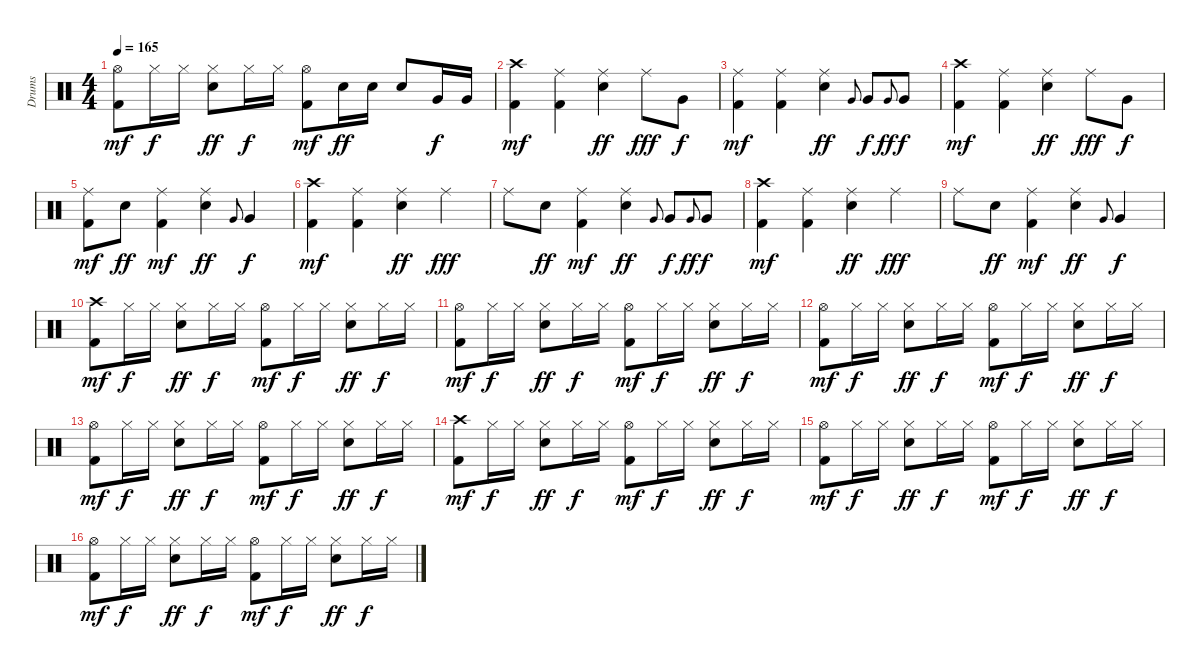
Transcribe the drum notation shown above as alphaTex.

\track ("Drums" "Drums") {instrument percussion}
\staff {score}
\articulation defaults
\ts (4 4)
\tempo 165
\clef neutral
\ks c
("Hi-Hat (open)" "Kick (hit) 2").8{dy mf} "Hi-Hat (closed)".16{dy f} "Hi-Hat (closed)".16 ("Hi-Hat (closed)" "Electric Snare (hit)").8{dy ff} "Hi-Hat (closed)".16{dy f} "Hi-Hat (closed)".16 ("Hi-Hat (open)" "Kick (hit) 2").8{dy mf} "Electric Snare (hit)".16{dy ff} "Electric Snare (hit)".16 "Electric Snare (hit)".8 "Very Low Tom (hit)".16{dy f} "Very Low Tom (hit)".16 |
("Crash high (hit)" "Kick (hit) 2").4{dy mf} ("Ride (middle)" "Kick (hit) 2").4 ("Ride (middle)" "Electric Snare (hit)").4{dy ff} "Ride (middle)".8{dy fff} "Very Low Tom (hit)".8{dy f} |
("Ride (middle)" "Kick (hit) 2").4{dy mf} ("Ride (middle)" "Kick (hit) 2").4 ("Ride (middle)" "Electric Snare (hit)").4{dy ff} "Very Low Tom (hit)".8{gr onbeat} "Very Low Tom (hit)".8{dy f} "Very Low Tom (hit)".8{gr onbeat dy ff} "Very Low Tom (hit)".8{dy f} |
("Crash high (hit)" "Kick (hit) 2").4{dy mf} ("Ride (middle)" "Kick (hit) 2").4 ("Ride (middle)" "Electric Snare (hit)").4{dy ff} "Ride (middle)".8{dy fff} "Very Low Tom (hit)".8{dy f} |
("Ride (middle)" "Kick (hit) 2").8{dy mf} "Electric Snare (hit)".8{dy ff} ("Ride (middle)" "Kick (hit) 2").4{dy mf} ("Ride (middle)" "Electric Snare (hit)").4{dy ff} "Very Low Tom (hit)".8{gr onbeat} "Very Low Tom (hit)".4{dy f} |
("Crash high (hit)" "Kick (hit) 2").4{dy mf} ("Ride (middle)" "Kick (hit) 2").4 ("Ride (middle)" "Electric Snare (hit)").4{dy ff} "Ride (middle)".4{dy fff} |
"Ride (middle)".8 "Electric Snare (hit)".8{dy ff} ("Ride (middle)" "Kick (hit) 2").4{dy mf} ("Ride (middle)" "Electric Snare (hit)").4{dy ff} "Very Low Tom (hit)".8{gr onbeat} "Very Low Tom (hit)".8{dy f} "Very Low Tom (hit)".8{gr onbeat dy ff} "Very Low Tom (hit)".8{dy f} |
("Crash high (hit)" "Kick (hit) 2").4{dy mf} ("Ride (middle)" "Kick (hit) 2").4 ("Ride (middle)" "Electric Snare (hit)").4{dy ff} "Ride (middle)".4{dy fff} |
"Ride (middle)".8 "Electric Snare (hit)".8{dy ff} ("Ride (middle)" "Kick (hit) 2").4{dy mf} ("Ride (middle)" "Electric Snare (hit)").4{dy ff} "Very Low Tom (hit)".8{gr onbeat} "Very Low Tom (hit)".4{dy f} |
("Crash high (hit)" "Kick (hit) 2").8{dy mf} "Hi-Hat (closed)".16{dy f} "Hi-Hat (closed)".16 ("Hi-Hat (closed)" "Electric Snare (hit)").8{dy ff} "Hi-Hat (closed)".16{dy f} "Hi-Hat (closed)".16 ("Hi-Hat (open)" "Kick (hit) 2").8{dy mf} "Hi-Hat (closed)".16{dy f} "Hi-Hat (closed)".16 ("Hi-Hat (closed)" "Electric Snare (hit)").8{dy ff} "Hi-Hat (closed)".16{dy f} "Hi-Hat (closed)".16 |
("Hi-Hat (open)" "Kick (hit) 2").8{dy mf} "Hi-Hat (closed)".16{dy f} "Hi-Hat (closed)".16 ("Hi-Hat (closed)" "Electric Snare (hit)").8{dy ff} "Hi-Hat (closed)".16{dy f} "Hi-Hat (closed)".16 ("Hi-Hat (open)" "Kick (hit) 2").8{dy mf} "Hi-Hat (closed)".16{dy f} "Hi-Hat (closed)".16 ("Hi-Hat (closed)" "Electric Snare (hit)").8{dy ff} "Hi-Hat (closed)".16{dy f} "Hi-Hat (closed)".16 |
("Hi-Hat (open)" "Kick (hit) 2").8{dy mf} "Hi-Hat (closed)".16{dy f} "Hi-Hat (closed)".16 ("Hi-Hat (closed)" "Electric Snare (hit)").8{dy ff} "Hi-Hat (closed)".16{dy f} "Hi-Hat (closed)".16 ("Hi-Hat (open)" "Kick (hit) 2").8{dy mf} "Hi-Hat (closed)".16{dy f} "Hi-Hat (closed)".16 ("Hi-Hat (closed)" "Electric Snare (hit)").8{dy ff} "Hi-Hat (closed)".16{dy f} "Hi-Hat (closed)".16 |
("Hi-Hat (open)" "Kick (hit) 2").8{dy mf} "Hi-Hat (closed)".16{dy f} "Hi-Hat (closed)".16 ("Hi-Hat (closed)" "Electric Snare (hit)").8{dy ff} "Hi-Hat (closed)".16{dy f} "Hi-Hat (closed)".16 ("Hi-Hat (open)" "Kick (hit) 2").8{dy mf} "Hi-Hat (closed)".16{dy f} "Hi-Hat (closed)".16 ("Hi-Hat (closed)" "Electric Snare (hit)").8{dy ff} "Hi-Hat (closed)".16{dy f} "Hi-Hat (closed)".16 |
("Crash high (hit)" "Kick (hit) 2").8{dy mf} "Hi-Hat (closed)".16{dy f} "Hi-Hat (closed)".16 ("Hi-Hat (closed)" "Electric Snare (hit)").8{dy ff} "Hi-Hat (closed)".16{dy f} "Hi-Hat (closed)".16 ("Hi-Hat (open)" "Kick (hit) 2").8{dy mf} "Hi-Hat (closed)".16{dy f} "Hi-Hat (closed)".16 ("Hi-Hat (closed)" "Electric Snare (hit)").8{dy ff} "Hi-Hat (closed)".16{dy f} "Hi-Hat (closed)".16 |
("Hi-Hat (open)" "Kick (hit) 2").8{dy mf} "Hi-Hat (closed)".16{dy f} "Hi-Hat (closed)".16 ("Hi-Hat (closed)" "Electric Snare (hit)").8{dy ff} "Hi-Hat (closed)".16{dy f} "Hi-Hat (closed)".16 ("Hi-Hat (open)" "Kick (hit) 2").8{dy mf} "Hi-Hat (closed)".16{dy f} "Hi-Hat (closed)".16 ("Hi-Hat (closed)" "Electric Snare (hit)").8{dy ff} "Hi-Hat (closed)".16{dy f} "Hi-Hat (closed)".16 |
("Hi-Hat (open)" "Kick (hit) 2").8{dy mf} "Hi-Hat (closed)".16{dy f} "Hi-Hat (closed)".16 ("Hi-Hat (closed)" "Electric Snare (hit)").8{dy ff} "Hi-Hat (closed)".16{dy f} "Hi-Hat (closed)".16 ("Hi-Hat (open)" "Kick (hit) 2").8{dy mf} "Hi-Hat (closed)".16{dy f} "Hi-Hat (closed)".16 ("Hi-Hat (closed)" "Electric Snare (hit)").8{dy ff} "Hi-Hat (closed)".16{dy f} "Hi-Hat (closed)".16
